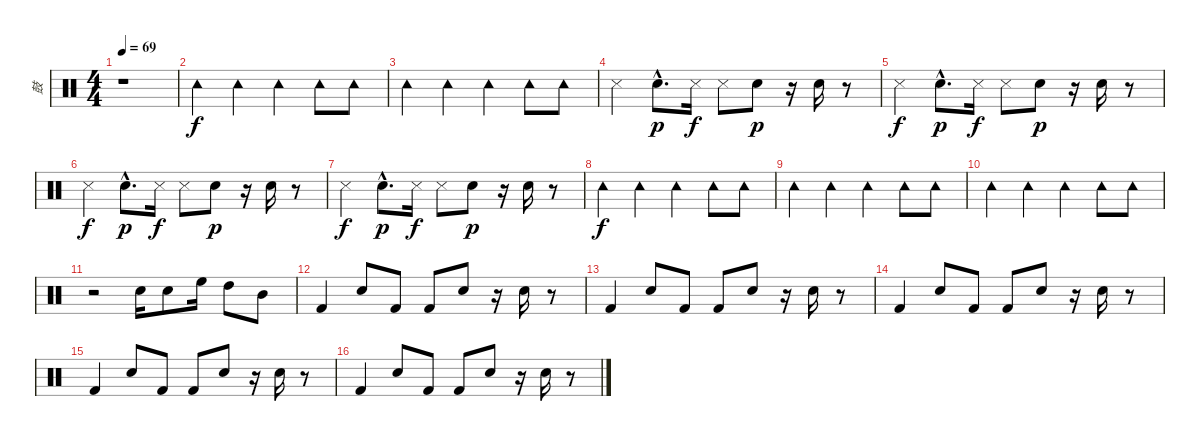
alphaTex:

\track ("鼓" "鼓") {instrument percussion}
\staff {score}
\articulation defaults
\ts (4 4)
\tempo 69
\clef neutral
\ks c
r.1{dy f} |
"Tambourine (hit)".4 "Tambourine (hit)".4 "Tambourine (hit)".4 "Tambourine (hit)".8 "Tambourine (hit)".8 |
"Tambourine (hit)".4 "Tambourine (hit)".4 "Tambourine (hit)".4 "Tambourine (hit)".8 "Tambourine (hit)".8 |
"Metronome (hit)".4 "Snare (hit) 2"{hac}.8{d dy p} "Metronome (hit)".16{dy f} "Metronome (hit)".8 "Snare (hit) 2".8{dy p} r.16 "Snare (hit) 2".16 r.8 |
"Metronome (hit)".4{dy f} "Snare (hit) 2"{hac}.8{d dy p} "Metronome (hit)".16{dy f} "Metronome (hit)".8 "Snare (hit) 2".8{dy p} r.16 "Snare (hit) 2".16 r.8 |
"Metronome (hit)".4{dy f} "Snare (hit) 2"{hac}.8{d dy p} "Metronome (hit)".16{dy f} "Metronome (hit)".8 "Snare (hit) 2".8{dy p} r.16 "Snare (hit) 2".16 r.8 |
"Metronome (hit)".4{dy f} "Snare (hit) 2"{hac}.8{d dy p} "Metronome (hit)".16{dy f} "Metronome (hit)".8 "Snare (hit) 2".8{dy p} r.16 "Snare (hit) 2".16 r.8 |
"Tambourine (hit)".4{dy f} "Tambourine (hit)".4 "Tambourine (hit)".4 "Tambourine (hit)".8 "Tambourine (hit)".8 |
"Tambourine (hit)".4 "Tambourine (hit)".4 "Tambourine (hit)".4 "Tambourine (hit)".8 "Tambourine (hit)".8 |
"Tambourine (hit)".4 "Tambourine (hit)".4 "Tambourine (hit)".4 "Tambourine (hit)".8 "Tambourine (hit)".8 |
r.2 "Snare (hit) 2".16 "Snare (hit) 2".8 "High Floor Tom (hit)".16 "High Tom (hit)".8 "Mid Tom (hit)".8 |
"Kick (hit) 2".4 "Snare (hit) 2".8 "Kick (hit) 2".8 "Kick (hit) 2".8 "Snare (hit) 2".8 r.16 "Snare (hit) 2".16 r.8 |
"Kick (hit) 2".4 "Snare (hit) 2".8 "Kick (hit) 2".8 "Kick (hit) 2".8 "Snare (hit) 2".8 r.16 "Snare (hit) 2".16 r.8 |
"Kick (hit) 2".4 "Snare (hit) 2".8 "Kick (hit) 2".8 "Kick (hit) 2".8 "Snare (hit) 2".8 r.16 "Snare (hit) 2".16 r.8 |
"Kick (hit) 2".4 "Snare (hit) 2".8 "Kick (hit) 2".8 "Kick (hit) 2".8 "Snare (hit) 2".8 r.16 "Snare (hit) 2".16 r.8 |
"Kick (hit) 2".4 "Snare (hit) 2".8 "Kick (hit) 2".8 "Kick (hit) 2".8 "Snare (hit) 2".8 r.16 "Snare (hit) 2".16 r.8
